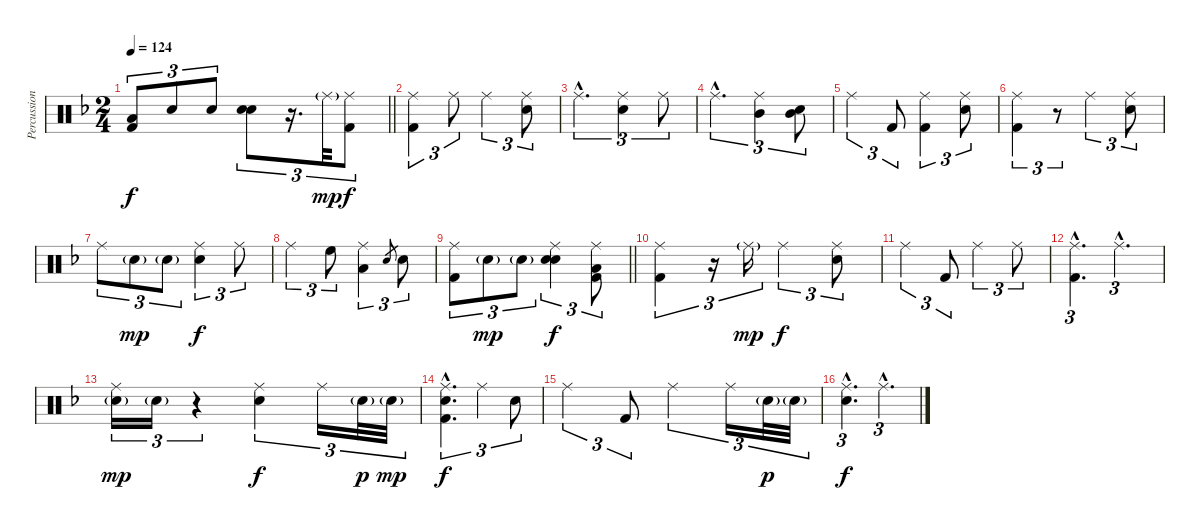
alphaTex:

\track ("Percussions" "Percussion") {instrument percussion}
\staff {score}
\articulation defaults
\ts (2 4)
\tempo 124
\clef neutral
\barLineRight lightlight
\ks dminor
("Low Tom (hit)" "Kick (hit) 2").8{tu (3 2) dy f volume 13 balance 8} "Snare (hit) 2".8{tu (3 2)} "Snare (hit) 2".8{tu (3 2)} ("Snare (hit) 2" "Electric Snare (hit)").8{tu (3 2)} r.16{d tu (3 2)} "Ride (middle)"{g}.32{tu (3 2) dy mp} ("Ride (middle)" "Kick (hit) 2").8{tu (3 2) dy f} |
("Ride (middle)" "Kick (hit) 2").4{tu (3 2)} "Ride (middle)".8{tu (3 2)} "Ride (middle)".4{tu (3 2)} ("Ride (middle)" "Snare (hit) 2").8{tu (3 2)} |
"Ride (middle)"{hac}.4{d tu (3 2)} ("Ride (middle)" "Snare (hit) 2").4{tu (3 2)} "Ride (middle)".8{tu (3 2)} |
"Ride (middle)"{hac}.4{d tu (3 2)} ("Ride (middle)" "Mid Tom (hit)").4{tu (3 2)} ("Mid Tom (hit)" "Snare (hit) 2").8{tu (3 2)} |
"Ride (middle)".4{tu (3 2)} "Kick (hit) 2".8{tu (3 2)} ("Ride (middle)" "Kick (hit) 2").4{tu (3 2)} ("Ride (middle)" "Snare (hit) 2").8{tu (3 2)} |
("Ride (middle)" "Kick (hit) 2").4{tu (3 2)} r.8{tu (3 2)} "Ride (middle)".4{tu (3 2)} ("Ride (middle)" "Snare (hit) 2").8{tu (3 2)} |
"Ride (middle)".8{tu (3 2)} "Snare (hit) 2"{g}.8{tu (3 2) dy mp} "Snare (hit) 2"{g}.8{tu (3 2)} ("Ride (middle)" "Snare (hit) 2").4{tu (3 2) dy f} "Ride (middle)".8{tu (3 2)} |
"Ride (middle)".4{tu (3 2)} "High Floor Tom (hit)".8{tu (3 2)} ("Ride (middle)" "Low Tom (hit)").4{tu (3 2)} "Snare (hit) 2".8{gr} "Snare (hit) 2".8{tu (3 2)} |
\barLineRight lightlight
("Ride (middle)" "Kick (hit) 2").8{tu (3 2)} "Snare (hit) 2"{g}.8{tu (3 2) dy mp} "Snare (hit) 2"{g}.8{tu (3 2)} ("Ride (middle)" "Snare (hit) 2" "Electric Snare (hit)").4{tu (3 2) dy f} ("Ride (middle)" "Low Tom (hit)" "Kick (hit) 2").8{tu (3 2)} |
("Ride (middle)" "Kick (hit) 2").4{tu (3 2)} r.16{tu (3 2)} "Ride (middle)"{g}.16{tu (3 2) dy mp} "Ride (middle)".4{tu (3 2) dy f} ("Ride (middle)" "Snare (hit) 2").8{tu (3 2)} |
"Ride (middle)".4{tu (3 2)} "Kick (hit) 2".8{tu (3 2)} "Ride (middle)".4{tu (3 2)} "Ride (middle)".8{tu (3 2)} |
("Ride (middle)"{hac} "Kick (hit) 2"{hac}).4{d tu (3 2)} "Ride (middle)"{hac}.4{d tu (3 2)} |
("Ride (middle)" "Snare (hit) 2"{g}).16{tu (3 2) dy mp} "Snare (hit) 2"{g}.16{tu (3 2)} r.4{tu (3 2)} ("Ride (middle)" "Snare (hit) 2").4{tu (3 2) dy f} "Ride (middle)".16{tu (3 2)} "Snare (hit) 2"{g}.32{tu (3 2) dy p} "Snare (hit) 2"{g}.32{tu (3 2) dy mp} |
("Ride (middle)"{hac} "Snare (hit) 2"{hac} "Kick (hit) 2"{hac}).4{d tu (3 2) dy f} "Ride (middle)".4{tu (3 2)} "Snare (hit) 2".8{tu (3 2)} |
"Ride (middle)".4{tu (3 2)} "Kick (hit) 2".8{tu (3 2)} "Ride (middle)".4{tu (3 2)} "Ride (middle)".16{tu (3 2)} "Snare (hit) 2"{g}.32{tu (3 2) dy p} "Snare (hit) 2"{g}.32{tu (3 2)} |
("Ride (middle)"{hac} "Snare (hit) 2"{hac}).4{d tu (3 2) dy f} "Ride (middle)"{hac}.4{d tu (3 2)}
